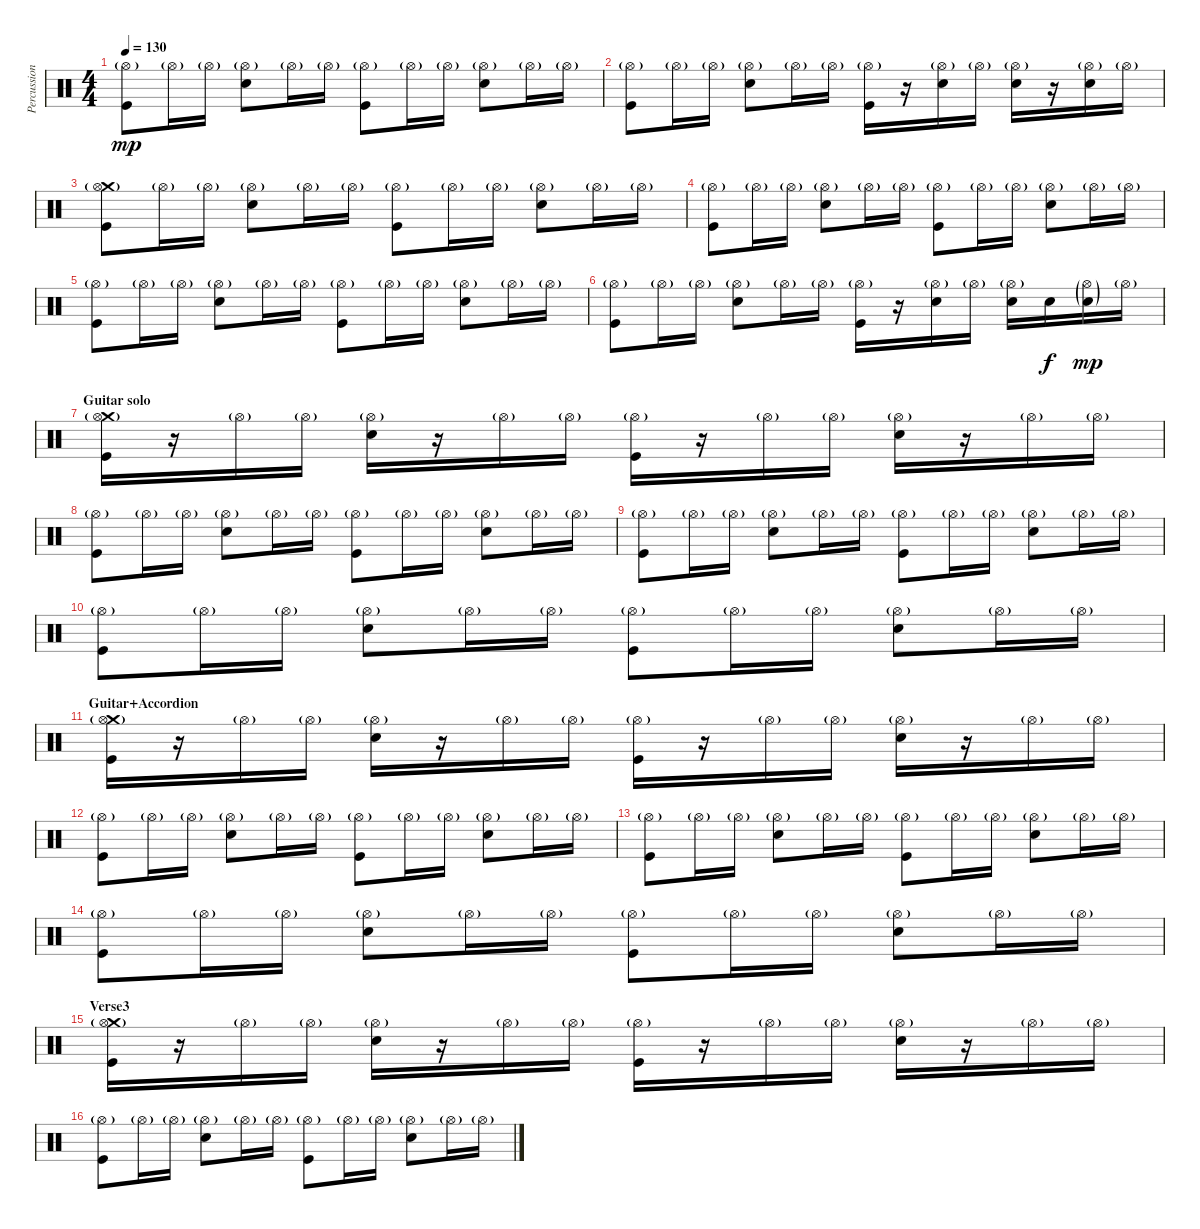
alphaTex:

\track ("Percussion" "Percussion") {instrument percussion}
\staff {score}
\articulation defaults
\ts (4 4)
\tempo 130
\clef neutral
\ks c
("Hi-Hat (open)"{g} "Kick (hit)").8{dy mp} "Hi-Hat (open)"{g}.16 "Hi-Hat (open)"{g}.16 ("Hi-Hat (open)"{g} "Snare (hit) 2").8 "Hi-Hat (open)"{g}.16 "Hi-Hat (open)"{g}.16 ("Hi-Hat (open)"{g} "Kick (hit)").8 "Hi-Hat (open)"{g}.16 "Hi-Hat (open)"{g}.16 ("Hi-Hat (open)"{g} "Snare (hit) 2").8 "Hi-Hat (open)"{g}.16 "Hi-Hat (open)"{g}.16 |
("Hi-Hat (open)"{g} "Kick (hit)").8 "Hi-Hat (open)"{g}.16 "Hi-Hat (open)"{g}.16 ("Hi-Hat (open)"{g} "Snare (hit) 2").8 "Hi-Hat (open)"{g}.16 "Hi-Hat (open)"{g}.16 ("Hi-Hat (open)"{g} "Kick (hit)").16 r.16 ("Hi-Hat (open)"{g} "Snare (hit) 2").16 "Hi-Hat (open)"{g}.16 ("Hi-Hat (open)"{g} "Snare (hit) 2").16 r.16 ("Hi-Hat (open)"{g} "Snare (hit) 2").16 "Hi-Hat (open)"{g}.16 |
("Crash medium (hit)" "Hi-Hat (open)"{g} "Kick (hit)").8{balance 8} "Hi-Hat (open)"{g}.16 "Hi-Hat (open)"{g}.16 ("Hi-Hat (open)"{g} "Snare (hit) 2").8 "Hi-Hat (open)"{g}.16 "Hi-Hat (open)"{g}.16 ("Hi-Hat (open)"{g} "Kick (hit)").8 "Hi-Hat (open)"{g}.16 "Hi-Hat (open)"{g}.16 ("Hi-Hat (open)"{g} "Snare (hit) 2").8 "Hi-Hat (open)"{g}.16 "Hi-Hat (open)"{g}.16 |
("Hi-Hat (open)"{g} "Kick (hit)").8 "Hi-Hat (open)"{g}.16 "Hi-Hat (open)"{g}.16 ("Hi-Hat (open)"{g} "Snare (hit) 2").8 "Hi-Hat (open)"{g}.16 "Hi-Hat (open)"{g}.16 ("Hi-Hat (open)"{g} "Kick (hit)").8 "Hi-Hat (open)"{g}.16 "Hi-Hat (open)"{g}.16 ("Hi-Hat (open)"{g} "Snare (hit) 2").8 "Hi-Hat (open)"{g}.16 "Hi-Hat (open)"{g}.16 |
("Hi-Hat (open)"{g} "Kick (hit)").8 "Hi-Hat (open)"{g}.16 "Hi-Hat (open)"{g}.16 ("Hi-Hat (open)"{g} "Snare (hit) 2").8 "Hi-Hat (open)"{g}.16 "Hi-Hat (open)"{g}.16 ("Hi-Hat (open)"{g} "Kick (hit)").8 "Hi-Hat (open)"{g}.16 "Hi-Hat (open)"{g}.16 ("Hi-Hat (open)"{g} "Snare (hit) 2").8 "Hi-Hat (open)"{g}.16 "Hi-Hat (open)"{g}.16 |
("Hi-Hat (open)"{g} "Kick (hit)").8 "Hi-Hat (open)"{g}.16 "Hi-Hat (open)"{g}.16 ("Hi-Hat (open)"{g} "Snare (hit) 2").8 "Hi-Hat (open)"{g}.16 "Hi-Hat (open)"{g}.16 ("Hi-Hat (open)"{g} "Kick (hit)").16 r.16 ("Hi-Hat (open)"{g} "Snare (hit) 2").16 "Hi-Hat (open)"{g}.16 ("Hi-Hat (open)"{g} "Snare (hit) 2").16 "Snare (hit) 2".16{dy f} ("Hi-Hat (open)"{g} "Snare (hit) 2"{g}).16{dy mp} "Hi-Hat (open)"{g}.16 |
\section ("" "Guitar solo")
("Crash medium (hit)" "Hi-Hat (open)"{g} "Kick (hit)").16{balance 8} r.16 "Hi-Hat (open)"{g}.16 "Hi-Hat (open)"{g}.16 ("Hi-Hat (open)"{g} "Snare (hit) 2").16 r.16 "Hi-Hat (open)"{g}.16 "Hi-Hat (open)"{g}.16 ("Hi-Hat (open)"{g} "Kick (hit)").16 r.16 "Hi-Hat (open)"{g}.16 "Hi-Hat (open)"{g}.16 ("Hi-Hat (open)"{g} "Snare (hit) 2").16 r.16 "Hi-Hat (open)"{g}.16 "Hi-Hat (open)"{g}.16 |
("Hi-Hat (open)"{g} "Kick (hit)").8{balance 8} "Hi-Hat (open)"{g}.16 "Hi-Hat (open)"{g}.16 ("Hi-Hat (open)"{g} "Snare (hit) 2").8 "Hi-Hat (open)"{g}.16 "Hi-Hat (open)"{g}.16 ("Hi-Hat (open)"{g} "Kick (hit)").8 "Hi-Hat (open)"{g}.16 "Hi-Hat (open)"{g}.16 ("Hi-Hat (open)"{g} "Snare (hit) 2").8 "Hi-Hat (open)"{g}.16 "Hi-Hat (open)"{g}.16 |
("Hi-Hat (open)"{g} "Kick (hit)").8{balance 8} "Hi-Hat (open)"{g}.16 "Hi-Hat (open)"{g}.16 ("Hi-Hat (open)"{g} "Snare (hit) 2").8 "Hi-Hat (open)"{g}.16 "Hi-Hat (open)"{g}.16 ("Hi-Hat (open)"{g} "Kick (hit)").8 "Hi-Hat (open)"{g}.16 "Hi-Hat (open)"{g}.16 ("Hi-Hat (open)"{g} "Snare (hit) 2").8 "Hi-Hat (open)"{g}.16 "Hi-Hat (open)"{g}.16 |
("Hi-Hat (open)"{g} "Kick (hit)").8{balance 8} "Hi-Hat (open)"{g}.16 "Hi-Hat (open)"{g}.16 ("Hi-Hat (open)"{g} "Snare (hit) 2").8 "Hi-Hat (open)"{g}.16 "Hi-Hat (open)"{g}.16 ("Hi-Hat (open)"{g} "Kick (hit)").8 "Hi-Hat (open)"{g}.16 "Hi-Hat (open)"{g}.16 ("Hi-Hat (open)"{g} "Snare (hit) 2").8 "Hi-Hat (open)"{g}.16 "Hi-Hat (open)"{g}.16 |
\section ("" "Guitar+Accordion")
("Crash medium (hit)" "Hi-Hat (open)"{g} "Kick (hit)").16{balance 8} r.16 "Hi-Hat (open)"{g}.16 "Hi-Hat (open)"{g}.16 ("Hi-Hat (open)"{g} "Snare (hit) 2").16 r.16 "Hi-Hat (open)"{g}.16 "Hi-Hat (open)"{g}.16 ("Hi-Hat (open)"{g} "Kick (hit)").16 r.16 "Hi-Hat (open)"{g}.16 "Hi-Hat (open)"{g}.16 ("Hi-Hat (open)"{g} "Snare (hit) 2").16 r.16 "Hi-Hat (open)"{g}.16 "Hi-Hat (open)"{g}.16 |
("Hi-Hat (open)"{g} "Kick (hit)").8{balance 8} "Hi-Hat (open)"{g}.16 "Hi-Hat (open)"{g}.16 ("Hi-Hat (open)"{g} "Snare (hit) 2").8 "Hi-Hat (open)"{g}.16 "Hi-Hat (open)"{g}.16 ("Hi-Hat (open)"{g} "Kick (hit)").8 "Hi-Hat (open)"{g}.16 "Hi-Hat (open)"{g}.16 ("Hi-Hat (open)"{g} "Snare (hit) 2").8 "Hi-Hat (open)"{g}.16 "Hi-Hat (open)"{g}.16 |
("Hi-Hat (open)"{g} "Kick (hit)").8{balance 8} "Hi-Hat (open)"{g}.16 "Hi-Hat (open)"{g}.16 ("Hi-Hat (open)"{g} "Snare (hit) 2").8 "Hi-Hat (open)"{g}.16 "Hi-Hat (open)"{g}.16 ("Hi-Hat (open)"{g} "Kick (hit)").8 "Hi-Hat (open)"{g}.16 "Hi-Hat (open)"{g}.16 ("Hi-Hat (open)"{g} "Snare (hit) 2").8 "Hi-Hat (open)"{g}.16 "Hi-Hat (open)"{g}.16 |
("Hi-Hat (open)"{g} "Kick (hit)").8{balance 8} "Hi-Hat (open)"{g}.16 "Hi-Hat (open)"{g}.16 ("Hi-Hat (open)"{g} "Snare (hit) 2").8 "Hi-Hat (open)"{g}.16 "Hi-Hat (open)"{g}.16 ("Hi-Hat (open)"{g} "Kick (hit)").8 "Hi-Hat (open)"{g}.16 "Hi-Hat (open)"{g}.16 ("Hi-Hat (open)"{g} "Snare (hit) 2").8 "Hi-Hat (open)"{g}.16 "Hi-Hat (open)"{g}.16 |
\section ("" "Verse3")
("Crash medium (hit)" "Hi-Hat (open)"{g} "Kick (hit)").16{balance 8} r.16 "Hi-Hat (open)"{g}.16 "Hi-Hat (open)"{g}.16 ("Hi-Hat (open)"{g} "Snare (hit) 2").16 r.16 "Hi-Hat (open)"{g}.16 "Hi-Hat (open)"{g}.16 ("Hi-Hat (open)"{g} "Kick (hit)").16 r.16 "Hi-Hat (open)"{g}.16 "Hi-Hat (open)"{g}.16 ("Hi-Hat (open)"{g} "Snare (hit) 2").16 r.16 "Hi-Hat (open)"{g}.16 "Hi-Hat (open)"{g}.16 |
("Hi-Hat (open)"{g} "Kick (hit)").8{balance 8} "Hi-Hat (open)"{g}.16 "Hi-Hat (open)"{g}.16 ("Hi-Hat (open)"{g} "Snare (hit) 2").8 "Hi-Hat (open)"{g}.16 "Hi-Hat (open)"{g}.16 ("Hi-Hat (open)"{g} "Kick (hit)").8 "Hi-Hat (open)"{g}.16 "Hi-Hat (open)"{g}.16 ("Hi-Hat (open)"{g} "Snare (hit) 2").8 "Hi-Hat (open)"{g}.16 "Hi-Hat (open)"{g}.16
